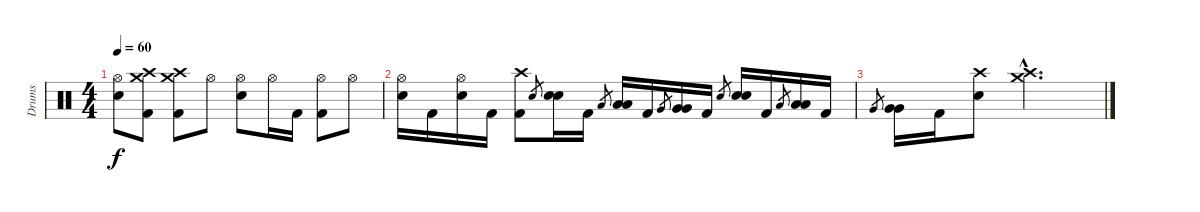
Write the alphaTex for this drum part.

\track ("Drums" "Drums") {instrument percussion}
\staff {score}
\articulation defaults
\ts (4 4)
\tempo 60
\clef neutral
\ks c
("Hi-Hat (open)" "Snare (hit) 2").8{dy f} ("Crash high (hit)" "Crash medium (hit)" "Kick (hit) 2").8 ("Crash high (hit)" "Crash medium (hit)" "Kick (hit) 2").8 "Hi-Hat (open)".8 ("Hi-Hat (open)" "Snare (hit) 2").8 "Hi-Hat (open)".16 "Kick (hit) 2".16 ("Hi-Hat (open)" "Kick (hit) 2").8 "Hi-Hat (open)".8 |
("Hi-Hat (open)" "Snare (hit) 2").16 "Kick (hit) 2".16 ("Hi-Hat (open)" "Snare (hit) 2").16 "Kick (hit) 2".16 ("Crash high (hit)" "Kick (hit) 2").8 "Snare (hit) 2".8{gr} ("Snare (hit) 2" "Snare (hit) 2").16 "Kick (hit) 2".16 "Low Tom (hit)".8{gr} ("Low Tom (hit)" "Low Tom (hit)").16 "Kick (hit) 2".16 "Very Low Tom (hit)".8{gr} ("Very Low Tom (hit)" "Very Low Tom (hit)").16 "Kick (hit) 2".16 "Snare (hit) 2".8{gr} ("Snare (hit) 2" "Snare (hit) 2").16 "Kick (hit) 2".16 "Low Tom (hit)".8{gr} ("Low Tom (hit)" "Low Tom (hit)").16 "Kick (hit) 2".16 |
"Very Low Tom (hit)".8{gr} ("Very Low Tom (hit)" "Very Low Tom (hit)").16 "Kick (hit) 2".16 ("Crash high (hit)" "Snare (hit) 2").8 ("Crash high (hit)"{hac} "Crash medium (hit)"{hac}).2{d}
